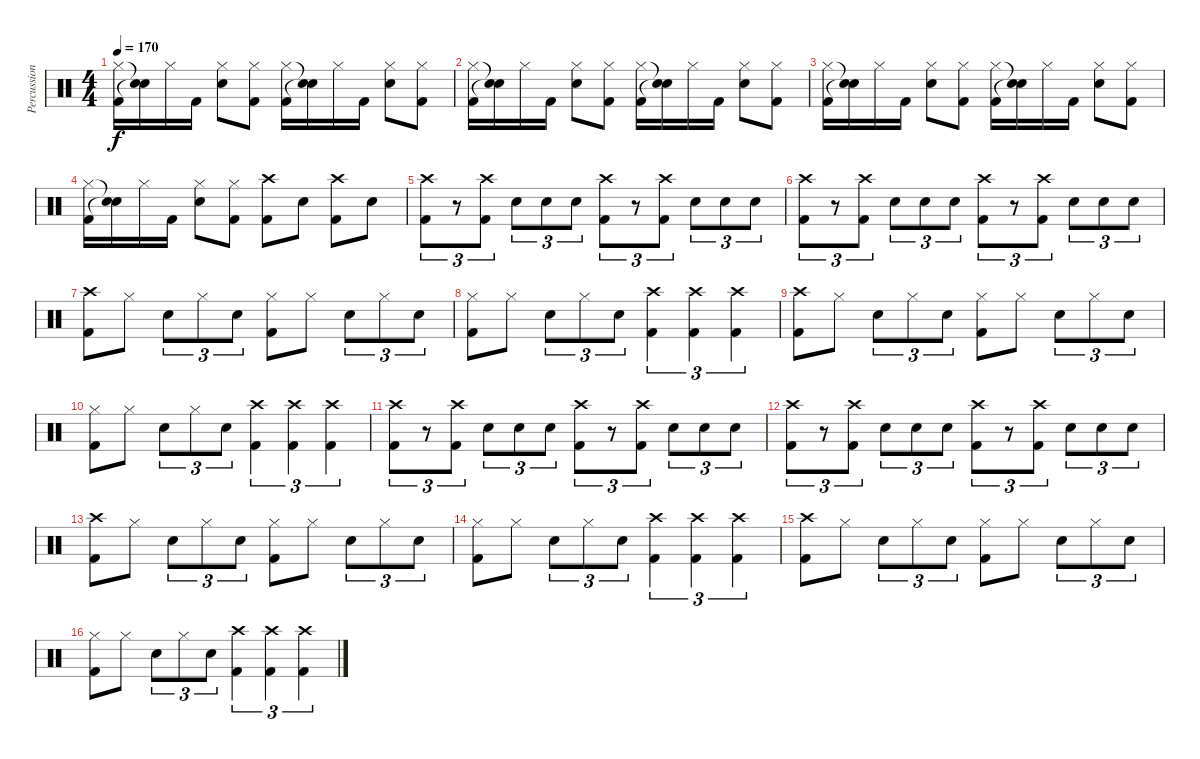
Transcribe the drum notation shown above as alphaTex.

\track ("Percussion" "Percussion") {instrument percussion}
\staff {score}
\articulation defaults
\ts (4 4)
\tempo 170
\clef neutral
\ks c
("Hi-Hat (closed)" "Kick (hit) 2").16{dy f} ("Snare (hit)"{t} "Snare (hit)"{t}).16 "Hi-Hat (closed)".16 "Kick (hit) 2".16 ("Hi-Hat (closed)" "Snare (hit) 2").8 ("Hi-Hat (closed)" "Kick (hit) 2").8 ("Hi-Hat (closed)" "Kick (hit) 2").16 ("Snare (hit)"{t} "Snare (hit)"{t}).16 "Hi-Hat (closed)".16 "Kick (hit) 2".16 ("Hi-Hat (closed)" "Snare (hit) 2").8 ("Hi-Hat (closed)" "Kick (hit) 2").8 |
("Hi-Hat (closed)" "Kick (hit) 2").16 ("Snare (hit)"{t} "Snare (hit)"{t}).16 "Hi-Hat (closed)".16 "Kick (hit) 2".16 ("Hi-Hat (closed)" "Snare (hit) 2").8 ("Hi-Hat (closed)" "Kick (hit) 2").8 ("Hi-Hat (closed)" "Kick (hit) 2").16 ("Snare (hit)"{t} "Snare (hit)"{t}).16 "Hi-Hat (closed)".16 "Kick (hit) 2".16 ("Hi-Hat (closed)" "Snare (hit) 2").8 ("Hi-Hat (closed)" "Kick (hit) 2").8 |
("Hi-Hat (closed)" "Kick (hit) 2").16 ("Snare (hit)"{t} "Snare (hit)"{t}).16 "Hi-Hat (closed)".16 "Kick (hit) 2".16 ("Hi-Hat (closed)" "Snare (hit) 2").8 ("Hi-Hat (closed)" "Kick (hit) 2").8 ("Hi-Hat (closed)" "Kick (hit) 2").16 ("Snare (hit)"{t} "Snare (hit)"{t}).16 "Hi-Hat (closed)".16 "Kick (hit) 2".16 ("Hi-Hat (closed)" "Snare (hit) 2").8 ("Hi-Hat (closed)" "Kick (hit) 2").8 |
("Hi-Hat (closed)" "Kick (hit) 2").16 ("Snare (hit)"{t} "Snare (hit)"{t}).16 "Hi-Hat (closed)".16 "Kick (hit) 2".16 ("Hi-Hat (closed)" "Snare (hit) 2").8 ("Hi-Hat (closed)" "Kick (hit) 2").8 ("Crash high (hit)" "Kick (hit) 2").8 "Snare (hit) 2".8 ("Crash high (hit)" "Kick (hit) 2").8 "Snare (hit) 2".8 |
("Crash high (hit)" "Kick (hit) 2").8{tu (3 2)} r.8{tu (3 2)} ("Crash high (hit)" "Kick (hit) 2").8{tu (3 2)} "Snare (hit) 2".8{tu (3 2)} "Snare (hit) 2".8{tu (3 2)} "Snare (hit) 2".8{tu (3 2)} ("Crash high (hit)" "Kick (hit) 2").8{tu (3 2)} r.8{tu (3 2)} ("Crash high (hit)" "Kick (hit) 2").8{tu (3 2)} "Snare (hit) 2".8{tu (3 2)} "Snare (hit) 2".8{tu (3 2)} "Snare (hit) 2".8{tu (3 2)} |
("Crash high (hit)" "Kick (hit) 2").8{tu (3 2)} r.8{tu (3 2)} ("Crash high (hit)" "Kick (hit) 2").8{tu (3 2)} "Snare (hit) 2".8{tu (3 2)} "Snare (hit) 2".8{tu (3 2)} "Snare (hit) 2".8{tu (3 2)} ("Crash high (hit)" "Kick (hit) 2").8{tu (3 2)} r.8{tu (3 2)} ("Crash high (hit)" "Kick (hit) 2").8{tu (3 2)} "Snare (hit) 2".8{tu (3 2)} "Snare (hit) 2".8{tu (3 2)} "Snare (hit) 2".8{tu (3 2)} |
("Crash high (hit)" "Kick (hit) 2").8 "Hi-Hat (closed)".8 "Snare (hit) 2".8{tu (3 2)} "Hi-Hat (closed)".8{tu (3 2)} "Snare (hit) 2".8{tu (3 2)} ("Hi-Hat (closed)" "Kick (hit) 2").8 "Hi-Hat (closed)".8 "Snare (hit) 2".8{tu (3 2)} "Hi-Hat (closed)".8{tu (3 2)} "Snare (hit) 2".8{tu (3 2)} |
("Hi-Hat (closed)" "Kick (hit) 2").8 "Hi-Hat (closed)".8 "Snare (hit) 2".8{tu (3 2)} "Hi-Hat (closed)".8{tu (3 2)} "Snare (hit) 2".8{tu (3 2)} ("Crash high (hit)" "Kick (hit) 2").4{tu (3 2)} ("Crash high (hit)" "Kick (hit) 2").4{tu (3 2)} ("Crash high (hit)" "Kick (hit) 2").4{tu (3 2)} |
("Crash high (hit)" "Kick (hit) 2").8 "Hi-Hat (closed)".8 "Snare (hit) 2".8{tu (3 2)} "Hi-Hat (closed)".8{tu (3 2)} "Snare (hit) 2".8{tu (3 2)} ("Hi-Hat (closed)" "Kick (hit) 2").8 "Hi-Hat (closed)".8 "Snare (hit) 2".8{tu (3 2)} "Hi-Hat (closed)".8{tu (3 2)} "Snare (hit) 2".8{tu (3 2)} |
("Hi-Hat (closed)" "Kick (hit) 2").8 "Hi-Hat (closed)".8 "Snare (hit) 2".8{tu (3 2)} "Hi-Hat (closed)".8{tu (3 2)} "Snare (hit) 2".8{tu (3 2)} ("Crash high (hit)" "Kick (hit) 2").4{tu (3 2)} ("Crash high (hit)" "Kick (hit) 2").4{tu (3 2)} ("Crash high (hit)" "Kick (hit) 2").4{tu (3 2)} |
("Crash high (hit)" "Kick (hit) 2").8{tu (3 2)} r.8{tu (3 2)} ("Crash high (hit)" "Kick (hit) 2").8{tu (3 2)} "Snare (hit) 2".8{tu (3 2)} "Snare (hit) 2".8{tu (3 2)} "Snare (hit) 2".8{tu (3 2)} ("Crash high (hit)" "Kick (hit) 2").8{tu (3 2)} r.8{tu (3 2)} ("Crash high (hit)" "Kick (hit) 2").8{tu (3 2)} "Snare (hit) 2".8{tu (3 2)} "Snare (hit) 2".8{tu (3 2)} "Snare (hit) 2".8{tu (3 2)} |
("Crash high (hit)" "Kick (hit) 2").8{tu (3 2)} r.8{tu (3 2)} ("Crash high (hit)" "Kick (hit) 2").8{tu (3 2)} "Snare (hit) 2".8{tu (3 2)} "Snare (hit) 2".8{tu (3 2)} "Snare (hit) 2".8{tu (3 2)} ("Crash high (hit)" "Kick (hit) 2").8{tu (3 2)} r.8{tu (3 2)} ("Crash high (hit)" "Kick (hit) 2").8{tu (3 2)} "Snare (hit) 2".8{tu (3 2)} "Snare (hit) 2".8{tu (3 2)} "Snare (hit) 2".8{tu (3 2)} |
("Crash high (hit)" "Kick (hit) 2").8 "Hi-Hat (closed)".8 "Snare (hit) 2".8{tu (3 2)} "Hi-Hat (closed)".8{tu (3 2)} "Snare (hit) 2".8{tu (3 2)} ("Hi-Hat (closed)" "Kick (hit) 2").8 "Hi-Hat (closed)".8 "Snare (hit) 2".8{tu (3 2)} "Hi-Hat (closed)".8{tu (3 2)} "Snare (hit) 2".8{tu (3 2)} |
("Hi-Hat (closed)" "Kick (hit) 2").8 "Hi-Hat (closed)".8 "Snare (hit) 2".8{tu (3 2)} "Hi-Hat (closed)".8{tu (3 2)} "Snare (hit) 2".8{tu (3 2)} ("Crash high (hit)" "Kick (hit) 2").4{tu (3 2)} ("Crash high (hit)" "Kick (hit) 2").4{tu (3 2)} ("Crash high (hit)" "Kick (hit) 2").4{tu (3 2)} |
("Crash high (hit)" "Kick (hit) 2").8 "Hi-Hat (closed)".8 "Snare (hit) 2".8{tu (3 2)} "Hi-Hat (closed)".8{tu (3 2)} "Snare (hit) 2".8{tu (3 2)} ("Hi-Hat (closed)" "Kick (hit) 2").8 "Hi-Hat (closed)".8 "Snare (hit) 2".8{tu (3 2)} "Hi-Hat (closed)".8{tu (3 2)} "Snare (hit) 2".8{tu (3 2)} |
("Hi-Hat (closed)" "Kick (hit) 2").8 "Hi-Hat (closed)".8 "Snare (hit) 2".8{tu (3 2)} "Hi-Hat (closed)".8{tu (3 2)} "Snare (hit) 2".8{tu (3 2)} ("Crash high (hit)" "Kick (hit) 2").4{tu (3 2)} ("Crash high (hit)" "Kick (hit) 2").4{tu (3 2)} ("Crash high (hit)" "Kick (hit) 2").4{tu (3 2)}
